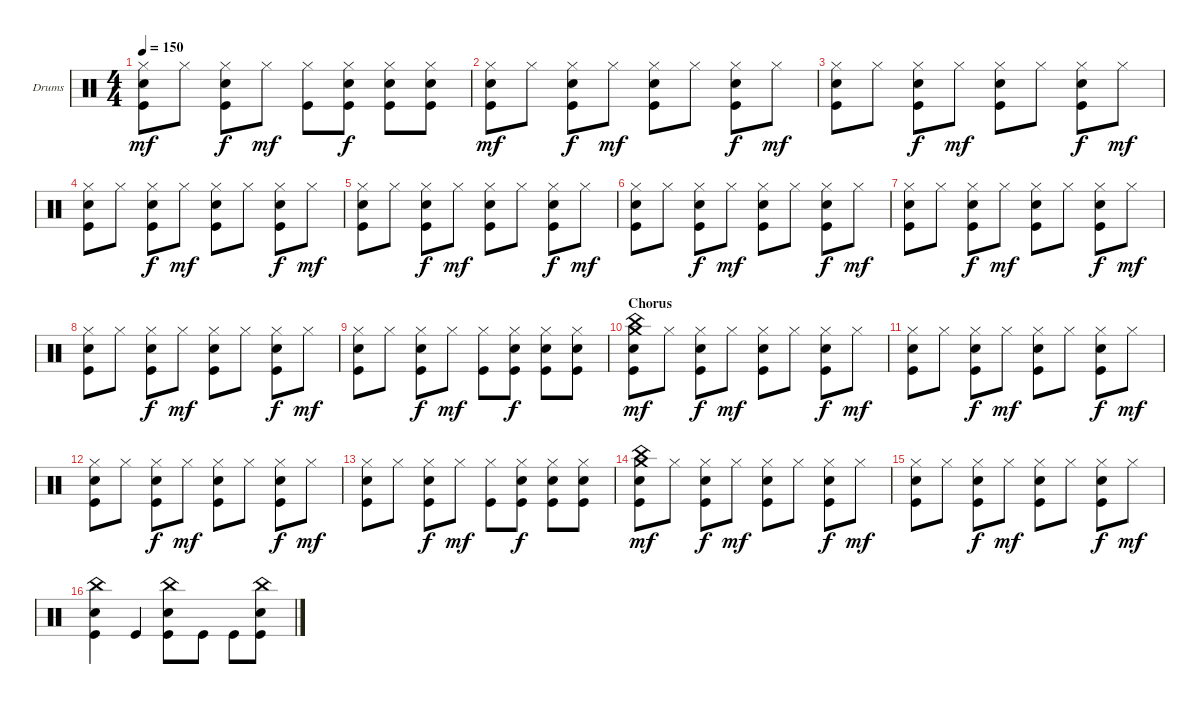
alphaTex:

\defaultSystemsLayout 4
\bracketExtendMode groupsimilarinstruments
\firstSystemTrackNameOrientation horizontal
\otherSystemsTrackNameOrientation horizontal
\track ("Drumkit" "Drums") {instrument percussion}
\staff {score}
\articulation defaults
\ts (4 4)
\tempo 150
\clef neutral
\ks c
("Snare (hit) 2" "Kick (hit)" "Hi-Hat (closed)").8{dy mf} "Hi-Hat (closed)".8 ("Kick (hit)" "Snare (hit) 2" "Hi-Hat (closed)").8{dy f} "Hi-Hat (closed)".8{dy mf} ("Kick (hit)" "Hi-Hat (closed)").8 ("Kick (hit)" "Snare (hit) 2" "Hi-Hat (closed)").8{dy f} ("Kick (hit)" "Snare (hit) 2" "Hi-Hat (closed)").8 ("Kick (hit)" "Snare (hit) 2" "Hi-Hat (closed)").8 |
("Snare (hit) 2" "Kick (hit)" "Hi-Hat (closed)").8{dy mf} "Hi-Hat (closed)".8 ("Kick (hit)" "Snare (hit) 2" "Hi-Hat (closed)").8{dy f} "Hi-Hat (closed)".8{dy mf} ("Kick (hit)" "Snare (hit) 2" "Hi-Hat (closed)").8 "Hi-Hat (closed)".8 ("Kick (hit)" "Snare (hit) 2" "Hi-Hat (closed)").8{dy f} "Hi-Hat (closed)".8{dy mf} |
("Snare (hit) 2" "Kick (hit)" "Hi-Hat (closed)").8 "Hi-Hat (closed)".8 ("Kick (hit)" "Snare (hit) 2" "Hi-Hat (closed)").8{dy f} "Hi-Hat (closed)".8{dy mf} ("Kick (hit)" "Snare (hit) 2" "Hi-Hat (closed)").8 "Hi-Hat (closed)".8 ("Kick (hit)" "Snare (hit) 2" "Hi-Hat (closed)").8{dy f} "Hi-Hat (closed)".8{dy mf} |
("Snare (hit) 2" "Kick (hit)" "Hi-Hat (closed)").8 "Hi-Hat (closed)".8 ("Kick (hit)" "Snare (hit) 2" "Hi-Hat (closed)").8{dy f} "Hi-Hat (closed)".8{dy mf} ("Kick (hit)" "Snare (hit) 2" "Hi-Hat (closed)").8 "Hi-Hat (closed)".8 ("Kick (hit)" "Snare (hit) 2" "Hi-Hat (closed)").8{dy f} "Hi-Hat (closed)".8{dy mf} |
("Snare (hit) 2" "Kick (hit)" "Hi-Hat (closed)").8 "Hi-Hat (closed)".8 ("Kick (hit)" "Snare (hit) 2" "Hi-Hat (closed)").8{dy f} "Hi-Hat (closed)".8{dy mf} ("Kick (hit)" "Snare (hit) 2" "Hi-Hat (closed)").8 "Hi-Hat (closed)".8 ("Kick (hit)" "Snare (hit) 2" "Hi-Hat (closed)").8{dy f} "Hi-Hat (closed)".8{dy mf} |
("Snare (hit) 2" "Kick (hit)" "Hi-Hat (closed)").8 "Hi-Hat (closed)".8 ("Kick (hit)" "Snare (hit) 2" "Hi-Hat (closed)").8{dy f} "Hi-Hat (closed)".8{dy mf} ("Kick (hit)" "Snare (hit) 2" "Hi-Hat (closed)").8 "Hi-Hat (closed)".8 ("Kick (hit)" "Snare (hit) 2" "Hi-Hat (closed)").8{dy f} "Hi-Hat (closed)".8{dy mf} |
("Snare (hit) 2" "Kick (hit)" "Hi-Hat (closed)").8 "Hi-Hat (closed)".8 ("Kick (hit)" "Snare (hit) 2" "Hi-Hat (closed)").8{dy f} "Hi-Hat (closed)".8{dy mf} ("Kick (hit)" "Snare (hit) 2" "Hi-Hat (closed)").8 "Hi-Hat (closed)".8 ("Kick (hit)" "Snare (hit) 2" "Hi-Hat (closed)").8{dy f} "Hi-Hat (closed)".8{dy mf} |
("Snare (hit) 2" "Kick (hit)" "Hi-Hat (closed)").8 "Hi-Hat (closed)".8 ("Kick (hit)" "Snare (hit) 2" "Hi-Hat (closed)").8{dy f} "Hi-Hat (closed)".8{dy mf} ("Kick (hit)" "Snare (hit) 2" "Hi-Hat (closed)").8 "Hi-Hat (closed)".8 ("Kick (hit)" "Snare (hit) 2" "Hi-Hat (closed)").8{dy f} "Hi-Hat (closed)".8{dy mf} |
("Snare (hit) 2" "Kick (hit)" "Hi-Hat (closed)").8 "Hi-Hat (closed)".8 ("Kick (hit)" "Snare (hit) 2" "Hi-Hat (closed)").8{dy f} "Hi-Hat (closed)".8{dy mf} ("Kick (hit)" "Hi-Hat (closed)").8 ("Kick (hit)" "Snare (hit) 2" "Hi-Hat (closed)").8{dy f} ("Kick (hit)" "Snare (hit) 2" "Hi-Hat (closed)").8 ("Kick (hit)" "Snare (hit) 2" "Hi-Hat (closed)").8 |
\section ("" "Chorus")
("Snare (hit) 2" "Kick (hit)" "Crash medium (hit)" "China (hit)").8{dy mf} "Hi-Hat (closed)".8 ("Kick (hit)" "Snare (hit) 2" "Hi-Hat (closed)").8{dy f} "Hi-Hat (closed)".8{dy mf} ("Kick (hit)" "Snare (hit) 2" "Hi-Hat (closed)").8 "Hi-Hat (closed)".8 ("Kick (hit)" "Snare (hit) 2" "Hi-Hat (closed)").8{dy f} "Hi-Hat (closed)".8{dy mf} |
("Snare (hit) 2" "Kick (hit)" "Hi-Hat (closed)").8 "Hi-Hat (closed)".8 ("Kick (hit)" "Snare (hit) 2" "Hi-Hat (closed)").8{dy f} "Hi-Hat (closed)".8{dy mf} ("Kick (hit)" "Snare (hit) 2" "Hi-Hat (closed)").8 "Hi-Hat (closed)".8 ("Kick (hit)" "Snare (hit) 2" "Hi-Hat (closed)").8{dy f} "Hi-Hat (closed)".8{dy mf} |
("Snare (hit) 2" "Kick (hit)" "Hi-Hat (closed)").8 "Hi-Hat (closed)".8 ("Kick (hit)" "Snare (hit) 2" "Hi-Hat (closed)").8{dy f} "Hi-Hat (closed)".8{dy mf} ("Kick (hit)" "Snare (hit) 2" "Hi-Hat (closed)").8 "Hi-Hat (closed)".8 ("Kick (hit)" "Snare (hit) 2" "Hi-Hat (closed)").8{dy f} "Hi-Hat (closed)".8{dy mf} |
("Snare (hit) 2" "Kick (hit)" "Hi-Hat (closed)").8 "Hi-Hat (closed)".8 ("Kick (hit)" "Snare (hit) 2" "Hi-Hat (closed)").8{dy f} "Hi-Hat (closed)".8{dy mf} ("Kick (hit)" "Hi-Hat (closed)").8 ("Kick (hit)" "Snare (hit) 2" "Hi-Hat (closed)").8{dy f} ("Kick (hit)" "Snare (hit) 2" "Hi-Hat (closed)").8 ("Kick (hit)" "Snare (hit) 2" "Hi-Hat (closed)").8 |
("Snare (hit) 2" "Kick (hit)" "Crash medium (hit)" "China (hit)").8{dy mf} "Hi-Hat (closed)".8 ("Kick (hit)" "Snare (hit) 2" "Hi-Hat (closed)").8{dy f} "Hi-Hat (closed)".8{dy mf} ("Kick (hit)" "Snare (hit) 2" "Hi-Hat (closed)").8 "Hi-Hat (closed)".8 ("Kick (hit)" "Snare (hit) 2" "Hi-Hat (closed)").8{dy f} "Hi-Hat (closed)".8{dy mf} |
("Snare (hit) 2" "Kick (hit)" "Hi-Hat (closed)").8 "Hi-Hat (closed)".8 ("Kick (hit)" "Snare (hit) 2" "Hi-Hat (closed)").8{dy f} "Hi-Hat (closed)".8{dy mf} ("Kick (hit)" "Snare (hit) 2" "Hi-Hat (closed)").8 "Hi-Hat (closed)".8 ("Kick (hit)" "Snare (hit) 2" "Hi-Hat (closed)").8{dy f} "Hi-Hat (closed)".8{dy mf} |
("Kick (hit)" "Snare (hit) 2" "China (hit)").4 "Kick (hit)".4 ("Kick (hit)" "Snare (hit) 2" "China (hit)").8 "Kick (hit)".8 "Kick (hit)".8 ("Kick (hit)" "Snare (hit) 2" "China (hit)").8
